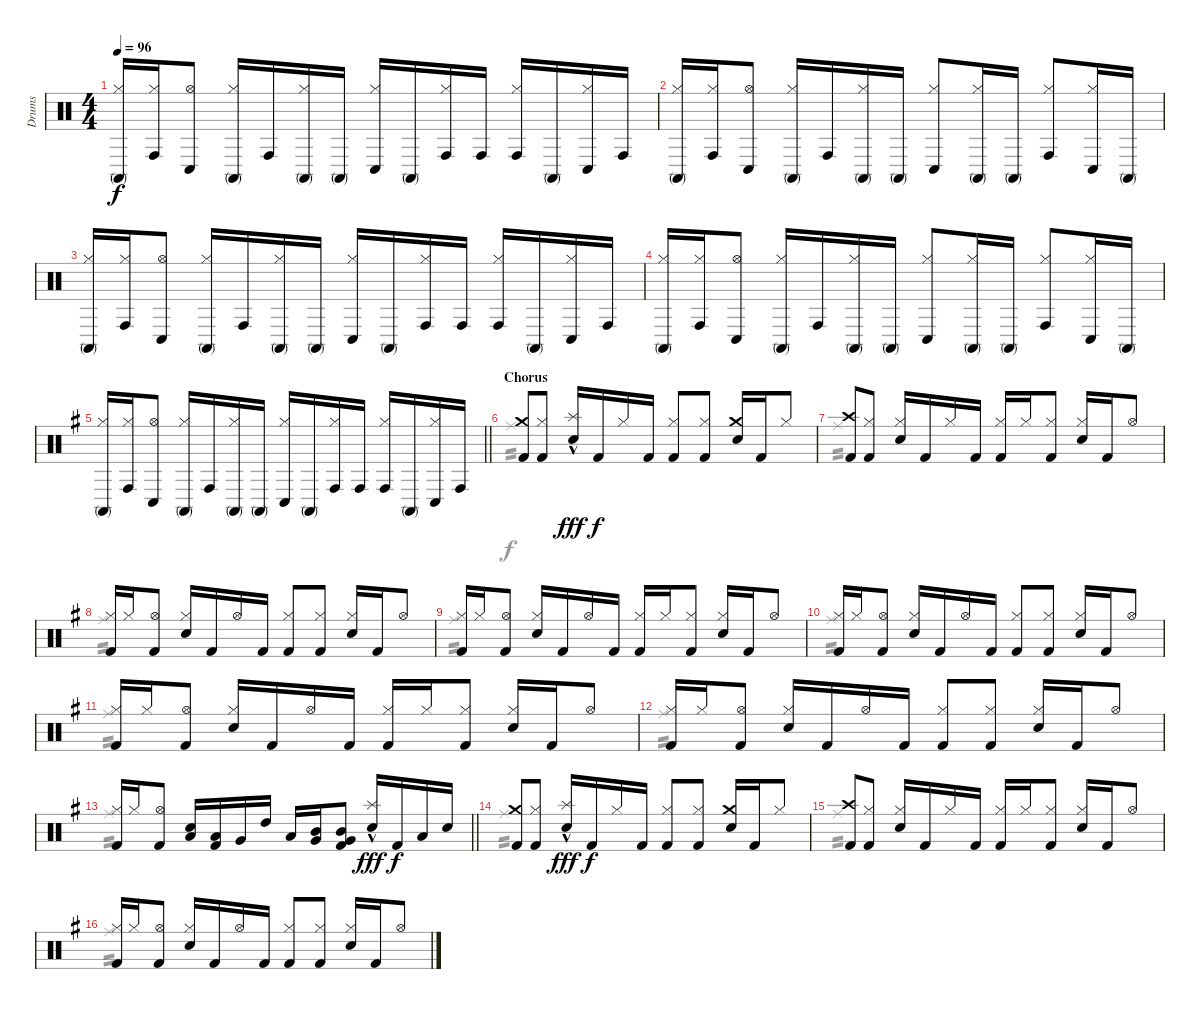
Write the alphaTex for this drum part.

\track ("Drums" "Drums") {instrument percussion}
\staff {score}
\articulation defaults
\voice
\ts (4 4)
\tempo 96
\clef neutral
\ks c
("Hi-Hat (closed)" "Conga high (mute)").16{dy f} ("Hi-Hat (closed)" "Conga high (hit)").16 ("Hi-Hat (open)" "Conga low (hit)").8 ("Hi-Hat (closed)" "Conga high (mute)").16 "Conga high (hit)".16 ("Hi-Hat (closed)" "Conga high (mute)").16 "Conga high (mute)".16 ("Hi-Hat (closed)" "Conga low (hit)").16 "Conga high (mute)".16 ("Hi-Hat (closed)" "Conga high (hit)").16 "Conga high (hit)".16 ("Hi-Hat (closed)" "Conga high (hit)").16 "Conga high (mute)".16 ("Hi-Hat (closed)" "Conga low (hit)").16 "Conga high (hit)".16 |
("Hi-Hat (closed)" "Conga high (mute)").16 ("Hi-Hat (closed)" "Conga high (hit)").16 ("Hi-Hat (open)" "Conga low (hit)").8 ("Hi-Hat (closed)" "Conga high (mute)").16 "Conga high (hit)".16 ("Hi-Hat (closed)" "Conga high (mute)").16 "Conga high (mute)".16 ("Hi-Hat (closed)" "Conga low (hit)").8 ("Hi-Hat (closed)" "Conga high (mute)").16 "Conga high (mute)".16 ("Hi-Hat (closed)" "Conga high (hit)").8 ("Hi-Hat (closed)" "Conga low (hit)").16 "Conga high (mute)".16 |
("Hi-Hat (closed)" "Conga high (mute)").16 ("Hi-Hat (closed)" "Conga high (hit)").16 ("Hi-Hat (open)" "Conga low (hit)").8 ("Hi-Hat (closed)" "Conga high (mute)").16 "Conga high (hit)".16 ("Hi-Hat (closed)" "Conga high (mute)").16 "Conga high (mute)".16 ("Hi-Hat (closed)" "Conga low (hit)").16 "Conga high (mute)".16 ("Hi-Hat (closed)" "Conga high (hit)").16 "Conga high (hit)".16 ("Hi-Hat (closed)" "Conga high (hit)").16 "Conga high (mute)".16 ("Hi-Hat (closed)" "Conga low (hit)").16 "Conga high (hit)".16 |
("Hi-Hat (closed)" "Conga high (mute)").16 ("Hi-Hat (closed)" "Conga high (hit)").16 ("Hi-Hat (open)" "Conga low (hit)").8 ("Hi-Hat (closed)" "Conga high (mute)").16 "Conga high (hit)".16 ("Hi-Hat (closed)" "Conga high (mute)").16 "Conga high (mute)".16 ("Hi-Hat (closed)" "Conga low (hit)").8 ("Hi-Hat (closed)" "Conga high (mute)").16 "Conga high (mute)".16 ("Hi-Hat (closed)" "Conga high (hit)").8 ("Hi-Hat (closed)" "Conga low (hit)").16 "Conga high (mute)".16 |
\barLineRight lightlight
\ks g
("Hi-Hat (closed)" "Conga high (mute)").16 ("Hi-Hat (closed)" "Conga high (hit)").16 ("Hi-Hat (open)" "Conga low (hit)").8 ("Hi-Hat (closed)" "Conga high (mute)").16 "Conga high (hit)".16 ("Hi-Hat (closed)" "Conga high (mute)").16 "Conga high (mute)".16 ("Hi-Hat (closed)" "Conga low (hit)").16 "Conga high (mute)".16 ("Hi-Hat (closed)" "Conga high (hit)").16 "Conga high (hit)".16 ("Hi-Hat (closed)" "Conga high (hit)").16 "Conga high (mute)".16 ("Hi-Hat (closed)" "Conga low (hit)").16 "Conga high (hit)".16 |
\section ("" "Chorus")
("Crash medium (hit)" "Kick (hit) 2").8 ("Hi-Hat (closed)" "Kick (hit) 2").8 ("Splash (hit)"{hac} "Electric Snare (hit)").16{dy fff} "Kick (hit) 2".16{dy f} "Hi-Hat (closed)".16 "Kick (hit) 2".16 ("Hi-Hat (closed)" "Kick (hit) 2").8 ("Hi-Hat (closed)" "Kick (hit) 2").8 ("Crash medium (hit)" "Electric Snare (hit)").16 "Kick (hit) 2".16 "Hi-Hat (closed)".8 |
("Crash high (hit)" "Kick (hit) 2").8 ("Hi-Hat (closed)" "Kick (hit) 2").8 ("Hi-Hat (closed)" "Electric Snare (hit)").16 "Kick (hit) 2".16 "Hi-Hat (closed)".16 "Kick (hit) 2".16 ("Hi-Hat (closed)" "Kick (hit) 2").16 "Hi-Hat (closed)".16 ("Hi-Hat (closed)" "Kick (hit) 2").8 ("Hi-Hat (closed)" "Electric Snare (hit)").16 "Kick (hit) 2".16 "Hi-Hat (open)".8 |
("Hi-Hat (closed)" "Kick (hit) 2").16 "Hi-Hat (closed)".16 ("Hi-Hat (open)" "Kick (hit) 2").8 ("Hi-Hat (closed)" "Electric Snare (hit)").16 "Kick (hit) 2".16 "Hi-Hat (open)".16 "Kick (hit) 2".16 ("Hi-Hat (closed)" "Kick (hit) 2").8 ("Hi-Hat (closed)" "Kick (hit) 2").8 ("Hi-Hat (closed)" "Electric Snare (hit)").16 "Kick (hit) 2".16 "Hi-Hat (open)".8 |
("Hi-Hat (closed)" "Kick (hit) 2").16 "Hi-Hat (closed)".16 ("Hi-Hat (open)" "Kick (hit) 2").8 ("Hi-Hat (closed)" "Electric Snare (hit)").16 "Kick (hit) 2".16 "Hi-Hat (open)".16 "Kick (hit) 2".16 ("Hi-Hat (closed)" "Kick (hit) 2").16 "Hi-Hat (closed)".16 ("Hi-Hat (closed)" "Kick (hit) 2").8 ("Hi-Hat (closed)" "Electric Snare (hit)").16 "Kick (hit) 2".16 "Hi-Hat (open)".8 |
("Hi-Hat (closed)" "Kick (hit) 2").16 "Hi-Hat (closed)".16 ("Hi-Hat (open)" "Kick (hit) 2").8 ("Hi-Hat (closed)" "Electric Snare (hit)").16 "Kick (hit) 2".16 "Hi-Hat (open)".16 "Kick (hit) 2".16 ("Hi-Hat (closed)" "Kick (hit) 2").8 ("Hi-Hat (closed)" "Kick (hit) 2").8 ("Hi-Hat (closed)" "Electric Snare (hit)").16 "Kick (hit) 2".16 "Hi-Hat (open)".8 |
("Hi-Hat (closed)" "Kick (hit) 2").16 "Hi-Hat (closed)".16 ("Hi-Hat (open)" "Kick (hit) 2").8 ("Hi-Hat (closed)" "Electric Snare (hit)").16 "Kick (hit) 2".16 "Hi-Hat (open)".16 "Kick (hit) 2".16 ("Hi-Hat (closed)" "Kick (hit) 2").16 "Hi-Hat (closed)".16 ("Hi-Hat (closed)" "Kick (hit) 2").8 ("Hi-Hat (closed)" "Electric Snare (hit)").16 "Kick (hit) 2".16 "Hi-Hat (open)".8 |
("Hi-Hat (closed)" "Kick (hit) 2").16 "Hi-Hat (closed)".16 ("Hi-Hat (open)" "Kick (hit) 2").8 ("Hi-Hat (closed)" "Electric Snare (hit)").16 "Kick (hit) 2".16 "Hi-Hat (open)".16 "Kick (hit) 2".16 ("Hi-Hat (closed)" "Kick (hit) 2").8 ("Hi-Hat (closed)" "Kick (hit) 2").8 ("Hi-Hat (closed)" "Electric Snare (hit)").16 "Kick (hit) 2".16 "Hi-Hat (open)".8 |
\barLineRight lightlight
("Hi-Hat (closed)" "Kick (hit) 2").16 "Hi-Hat (closed)".16 ("Hi-Hat (open)" "Kick (hit) 2").8 ("Electric Snare (hit)" "Low Tom (hit)").16 ("Low Tom (hit)" "Kick (hit) 2").16 "Very Low Tom (hit)".16 "High Tom (hit)".16 "Low Floor Tom (hit)".16 ("Mid Tom (hit)" "Very Low Tom (hit)").16 ("Mid Tom (hit)" "Very Low Tom (hit)" "Kick (hit) 2").8 ("Splash (hit)"{hac} "Electric Snare (hit)").16{dy fff} "Kick (hit) 2".16{dy f} "Low Tom (hit)".16 "Electric Snare (hit)".16 |
\section ("" "")
("Crash medium (hit)" "Kick (hit) 2").8 ("Hi-Hat (closed)" "Kick (hit) 2").8 ("Splash (hit)"{hac} "Electric Snare (hit)").16{dy fff} "Kick (hit) 2".16{dy f} "Hi-Hat (closed)".16 "Kick (hit) 2".16 ("Hi-Hat (closed)" "Kick (hit) 2").8 ("Hi-Hat (closed)" "Kick (hit) 2").8 ("Crash medium (hit)" "Electric Snare (hit)").16 "Kick (hit) 2".16 "Hi-Hat (closed)".8 |
("Crash high (hit)" "Kick (hit) 2").8 ("Hi-Hat (closed)" "Kick (hit) 2").8 ("Hi-Hat (closed)" "Electric Snare (hit)").16 "Kick (hit) 2".16 "Hi-Hat (closed)".16 "Kick (hit) 2".16 ("Hi-Hat (closed)" "Kick (hit) 2").16 "Hi-Hat (closed)".16 ("Hi-Hat (closed)" "Kick (hit) 2").8 ("Hi-Hat (closed)" "Electric Snare (hit)").16 "Kick (hit) 2".16 "Hi-Hat (open)".8 |
("Hi-Hat (closed)" "Kick (hit) 2").16 "Hi-Hat (closed)".16 ("Hi-Hat (open)" "Kick (hit) 2").8 ("Hi-Hat (closed)" "Electric Snare (hit)").16 "Kick (hit) 2".16 "Hi-Hat (open)".16 "Kick (hit) 2".16 ("Hi-Hat (closed)" "Kick (hit) 2").8 ("Hi-Hat (closed)" "Kick (hit) 2").8 ("Hi-Hat (closed)" "Electric Snare (hit)").16 "Kick (hit) 2".16 "Hi-Hat (open)".8
\voice
\clef neutral
\ottava regular
\simile none
\ks c
|
|
|
|
\barLineRight lightlight
\ks g
|
"Ride (middle)".1{tp 2} |
"Ride (middle)".1{tp 2} |
"Ride (middle)".1{tp 2} |
"Ride (middle)".1{tp 2} |
"Ride (middle)".1{tp 2} |
"Ride (middle)".1{tp 2} |
"Ride (middle)".1{tp 2} |
\barLineRight lightlight "Ride (middle)".1{tp 2}
|
"Ride (middle)".1{tp 2} |
"Ride (middle)".1{tp 2} |
"Ride (middle)".1{tp 2}
